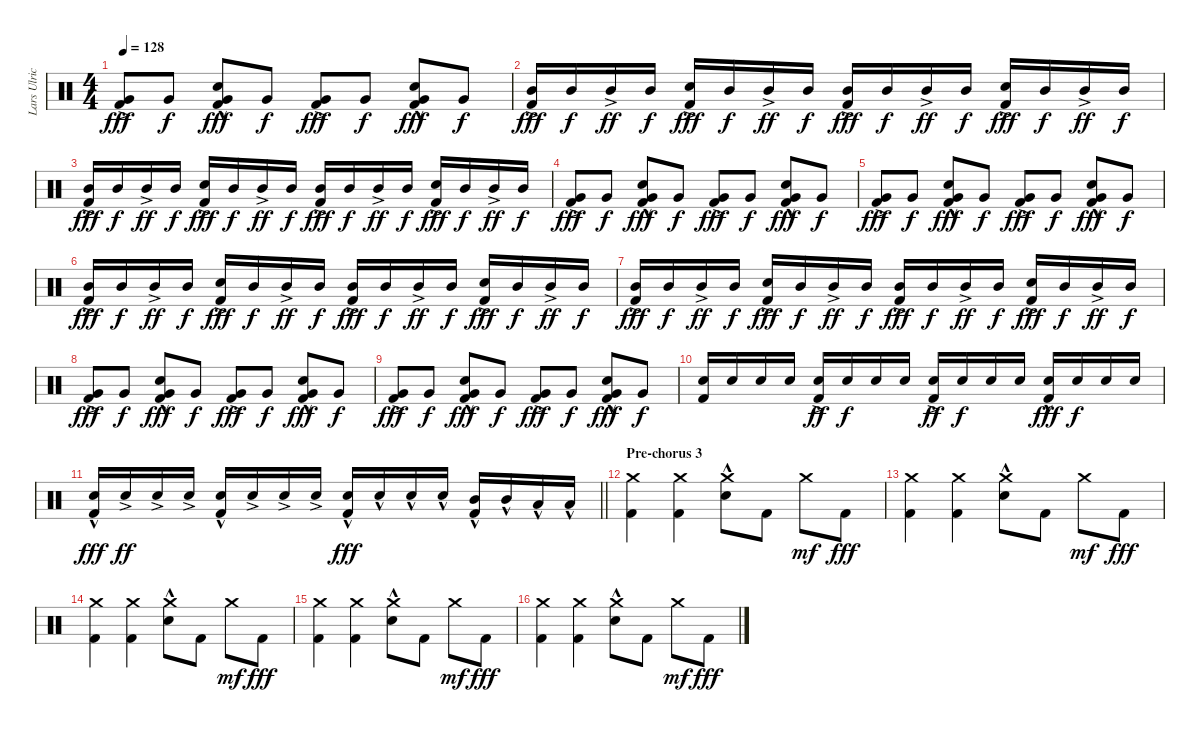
\track ("Lars Ulrich (Drums)" "Lars Ulric") {instrument percussion}
\staff {score}
\articulation defaults
\ts (4 4)
\tempo 128
\clef neutral
\ks c
("Very Low Tom (hit)"{ac} "Kick (hit) 2").8{dy fff} "Very Low Tom (hit)".8{dy f} ("Electric Snare (hit)"{hac} "Very Low Tom (hit)"{hac} "Kick (hit) 2").8{dy fff} "Very Low Tom (hit)".8{dy f} ("Very Low Tom (hit)"{ac} "Kick (hit) 2").8{dy fff} "Very Low Tom (hit)".8{dy f} ("Electric Snare (hit)"{hac} "Very Low Tom (hit)"{hac} "Kick (hit) 2").8{dy fff} "Very Low Tom (hit)".8{dy f} |
("Mid Tom (hit)"{ac} "Kick (hit) 2").16{dy fff} "Mid Tom (hit)".16{dy f} "Mid Tom (hit)"{ac}.16{dy ff} "Mid Tom (hit)".16{dy f} ("Electric Snare (hit)"{ac} "Kick (hit) 2").16{dy fff} "Mid Tom (hit)".16{dy f} "Mid Tom (hit)"{ac}.16{dy ff} "Mid Tom (hit)".16{dy f} ("Mid Tom (hit)"{ac} "Kick (hit) 2").16{dy fff} "Mid Tom (hit)".16{dy f} "Mid Tom (hit)"{ac}.16{dy ff} "Mid Tom (hit)".16{dy f} ("Electric Snare (hit)"{ac} "Kick (hit) 2").16{dy fff} "Mid Tom (hit)".16{dy f} "Mid Tom (hit)"{ac}.16{dy ff} "Mid Tom (hit)".16{dy f} |
("Mid Tom (hit)"{ac} "Kick (hit) 2").16{dy fff} "Mid Tom (hit)".16{dy f} "Mid Tom (hit)"{ac}.16{dy ff} "Mid Tom (hit)".16{dy f} ("Electric Snare (hit)"{ac} "Kick (hit) 2").16{dy fff} "Mid Tom (hit)".16{dy f} "Mid Tom (hit)"{ac}.16{dy ff} "Mid Tom (hit)".16{dy f} ("Mid Tom (hit)"{ac} "Kick (hit) 2").16{dy fff} "Mid Tom (hit)".16{dy f} "Mid Tom (hit)"{ac}.16{dy ff} "Mid Tom (hit)".16{dy f} ("Electric Snare (hit)"{ac} "Kick (hit) 2").16{dy fff} "Mid Tom (hit)".16{dy f} "Mid Tom (hit)"{ac}.16{dy ff} "Mid Tom (hit)".16{dy f} |
("Very Low Tom (hit)"{ac} "Kick (hit) 2").8{dy fff} "Very Low Tom (hit)".8{dy f} ("Electric Snare (hit)"{hac} "Very Low Tom (hit)"{hac} "Kick (hit) 2").8{dy fff} "Very Low Tom (hit)".8{dy f} ("Very Low Tom (hit)"{ac} "Kick (hit) 2").8{dy fff} "Very Low Tom (hit)".8{dy f} ("Electric Snare (hit)"{hac} "Very Low Tom (hit)"{hac} "Kick (hit) 2").8{dy fff} "Very Low Tom (hit)".8{dy f} |
("Very Low Tom (hit)"{ac} "Kick (hit) 2").8{dy fff} "Very Low Tom (hit)".8{dy f} ("Electric Snare (hit)"{hac} "Very Low Tom (hit)"{hac} "Kick (hit) 2").8{dy fff} "Very Low Tom (hit)".8{dy f} ("Very Low Tom (hit)"{ac} "Kick (hit) 2").8{dy fff} "Very Low Tom (hit)".8{dy f} ("Electric Snare (hit)"{hac} "Very Low Tom (hit)"{hac} "Kick (hit) 2").8{dy fff} "Very Low Tom (hit)".8{dy f} |
("Mid Tom (hit)"{ac} "Kick (hit) 2").16{dy fff} "Mid Tom (hit)".16{dy f} "Mid Tom (hit)"{ac}.16{dy ff} "Mid Tom (hit)".16{dy f} ("Electric Snare (hit)"{ac} "Kick (hit) 2").16{dy fff} "Mid Tom (hit)".16{dy f} "Mid Tom (hit)"{ac}.16{dy ff} "Mid Tom (hit)".16{dy f} ("Mid Tom (hit)"{ac} "Kick (hit) 2").16{dy fff} "Mid Tom (hit)".16{dy f} "Mid Tom (hit)"{ac}.16{dy ff} "Mid Tom (hit)".16{dy f} ("Electric Snare (hit)"{ac} "Kick (hit) 2").16{dy fff} "Mid Tom (hit)".16{dy f} "Mid Tom (hit)"{ac}.16{dy ff} "Mid Tom (hit)".16{dy f} |
("Mid Tom (hit)"{ac} "Kick (hit) 2").16{dy fff} "Mid Tom (hit)".16{dy f} "Mid Tom (hit)"{ac}.16{dy ff} "Mid Tom (hit)".16{dy f} ("Electric Snare (hit)"{ac} "Kick (hit) 2").16{dy fff} "Mid Tom (hit)".16{dy f} "Mid Tom (hit)"{ac}.16{dy ff} "Mid Tom (hit)".16{dy f} ("Mid Tom (hit)"{ac} "Kick (hit) 2").16{dy fff} "Mid Tom (hit)".16{dy f} "Mid Tom (hit)"{ac}.16{dy ff} "Mid Tom (hit)".16{dy f} ("Electric Snare (hit)"{ac} "Kick (hit) 2").16{dy fff} "Mid Tom (hit)".16{dy f} "Mid Tom (hit)"{ac}.16{dy ff} "Mid Tom (hit)".16{dy f} |
("Very Low Tom (hit)"{ac} "Kick (hit) 2").8{dy fff} "Very Low Tom (hit)".8{dy f} ("Electric Snare (hit)"{hac} "Very Low Tom (hit)"{hac} "Kick (hit) 2").8{dy fff} "Very Low Tom (hit)".8{dy f} ("Very Low Tom (hit)"{ac} "Kick (hit) 2").8{dy fff} "Very Low Tom (hit)".8{dy f} ("Electric Snare (hit)"{hac} "Very Low Tom (hit)"{hac} "Kick (hit) 2").8{dy fff} "Very Low Tom (hit)".8{dy f} |
("Very Low Tom (hit)"{ac} "Kick (hit) 2").8{dy fff} "Very Low Tom (hit)".8{dy f} ("Electric Snare (hit)"{hac} "Very Low Tom (hit)"{hac} "Kick (hit) 2").8{dy fff} "Very Low Tom (hit)".8{dy f} ("Very Low Tom (hit)"{ac} "Kick (hit) 2").8{dy fff} "Very Low Tom (hit)".8{dy f} ("Electric Snare (hit)"{hac} "Very Low Tom (hit)"{hac} "Kick (hit) 2").8{dy fff} "Very Low Tom (hit)".8{dy f} |
("Electric Snare (hit)" "Kick (hit) 2").16 "Electric Snare (hit)".16 "Electric Snare (hit)".16 "Electric Snare (hit)".16 ("Electric Snare (hit)"{ac} "Kick (hit) 2").16{dy ff} "Electric Snare (hit)".16{dy f} "Electric Snare (hit)".16 "Electric Snare (hit)".16 ("Electric Snare (hit)"{ac} "Kick (hit) 2").16{dy ff} "Electric Snare (hit)".16{dy f} "Electric Snare (hit)".16 "Electric Snare (hit)".16 ("Electric Snare (hit)"{hac} "Kick (hit) 2").16{dy fff} "Electric Snare (hit)".16{dy f} "Electric Snare (hit)".16 "Electric Snare (hit)".16 |
\barLineRight lightlight
("Electric Snare (hit)"{hac} "Kick (hit) 2").16{dy fff} "Electric Snare (hit)"{ac}.16{dy ff} "Electric Snare (hit)"{ac}.16 "Electric Snare (hit)"{ac}.16 ("Electric Snare (hit)"{hac} "Kick (hit) 2").16 "Electric Snare (hit)"{ac}.16 "Electric Snare (hit)"{ac}.16 "Electric Snare (hit)"{ac}.16 ("Electric Snare (hit)"{hac} "Kick (hit) 2").16{dy fff} "Electric Snare (hit)"{hac}.16 "Electric Snare (hit)"{hac}.16 "Electric Snare (hit)"{hac}.16 ("Mid Tom (hit)"{hac} "Kick (hit) 2").16 "Mid Tom (hit)"{hac}.16 "Low Tom (hit)"{hac}.16 "Low Tom (hit)"{hac}.16 |
\section ("" "Pre-chorus 3")
("Crash medium (hit)" "Kick (hit) 2").4 ("Crash medium (hit)" "Kick (hit) 2").4 ("Crash medium (hit)" "Electric Snare (hit)"{hac}).8 "Kick (hit) 2".8 "Crash medium (hit)".8{dy mf} "Kick (hit) 2".8{dy fff} |
("Crash medium (hit)" "Kick (hit) 2").4 ("Crash medium (hit)" "Kick (hit) 2").4 ("Crash medium (hit)" "Electric Snare (hit)"{hac}).8 "Kick (hit) 2".8 "Crash medium (hit)".8{dy mf} "Kick (hit) 2".8{dy fff} |
("Crash medium (hit)" "Kick (hit) 2").4 ("Crash medium (hit)" "Kick (hit) 2").4 ("Crash medium (hit)" "Electric Snare (hit)"{hac}).8 "Kick (hit) 2".8 "Crash medium (hit)".8{dy mf} "Kick (hit) 2".8{dy fff} |
("Crash medium (hit)" "Kick (hit) 2").4 ("Crash medium (hit)" "Kick (hit) 2").4 ("Crash medium (hit)" "Electric Snare (hit)"{hac}).8 "Kick (hit) 2".8 "Crash medium (hit)".8{dy mf} "Kick (hit) 2".8{dy fff} |
("Crash medium (hit)" "Kick (hit) 2").4 ("Crash medium (hit)" "Kick (hit) 2").4 ("Crash medium (hit)" "Electric Snare (hit)"{hac}).8 "Kick (hit) 2".8 "Crash medium (hit)".8{dy mf} "Kick (hit) 2".8{dy fff}
